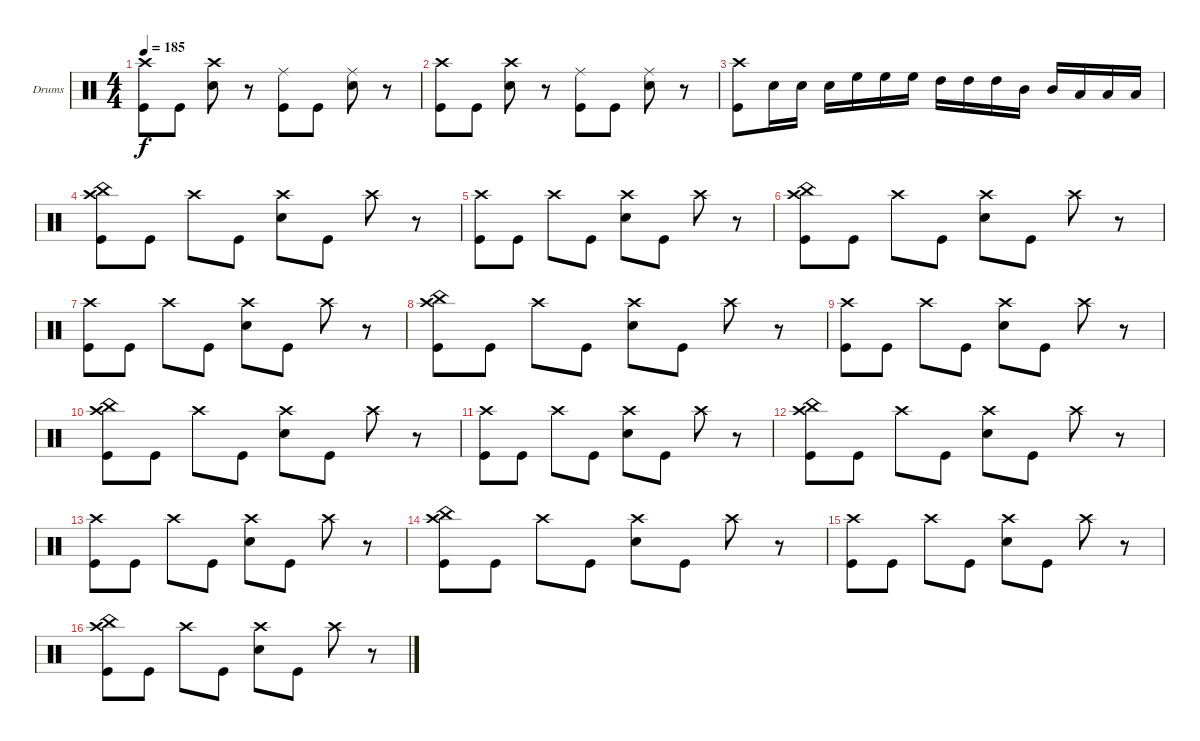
\defaultSystemsLayout 4
\bracketExtendMode nobrackets
\firstSystemTrackNameOrientation horizontal
\otherSystemsTrackNameOrientation horizontal
\track ("Drumkit" "Drums") {instrument percussion}
\staff {score}
\articulation defaults
\ts (4 4)
\tempo 185
\clef neutral
\ks c
("Crash high (hit)" "Kick (hit)").8{dy f} "Kick (hit)".8 ("Crash high (hit)" "Snare (hit) 2").8 r.8 ("Ride (middle)" "Kick (hit)").8 "Kick (hit)".8 ("Ride (middle)" "Snare (hit) 2").8 r.8 |
("Crash high (hit)" "Kick (hit)").8 "Kick (hit)".8 ("Crash high (hit)" "Snare (hit) 2").8 r.8 ("Ride (middle)" "Kick (hit)").8 "Kick (hit)".8 ("Ride (middle)" "Snare (hit) 2").8 r.8 |
("Crash high (hit)" "Kick (hit)").8 "Snare (hit) 2".16 "Snare (hit) 2".16 "Snare (hit) 2".16 "High Floor Tom (hit)".16 "High Floor Tom (hit)".16 "High Floor Tom (hit)".16 "High Tom (hit)".16 "High Tom (hit)".16 "High Tom (hit)".16 "Mid Tom (hit)".16 "Mid Tom (hit)".16 "Low Tom (hit)".16 "Low Tom (hit)".16 "Low Tom (hit)".16 |
("Crash high (hit)" "China (hit)" "Kick (hit)").8 "Kick (hit)".8 "Crash high (hit)".8 "Kick (hit)".8 ("Crash high (hit)" "Snare (hit) 2").8 "Kick (hit)".8 "Crash high (hit)".8 r.8 |
("Crash high (hit)" "Kick (hit)").8 "Kick (hit)".8 "Crash high (hit)".8 "Kick (hit)".8 ("Crash high (hit)" "Snare (hit) 2").8 "Kick (hit)".8 "Crash high (hit)".8 r.8 |
("Crash high (hit)" "China (hit)" "Kick (hit)").8 "Kick (hit)".8 "Crash high (hit)".8 "Kick (hit)".8 ("Crash high (hit)" "Snare (hit) 2").8 "Kick (hit)".8 "Crash high (hit)".8 r.8 |
("Crash high (hit)" "Kick (hit)").8 "Kick (hit)".8 "Crash high (hit)".8 "Kick (hit)".8 ("Crash high (hit)" "Snare (hit) 2").8 "Kick (hit)".8 "Crash high (hit)".8 r.8 |
("Crash high (hit)" "China (hit)" "Kick (hit)").8 "Kick (hit)".8 "Crash high (hit)".8 "Kick (hit)".8 ("Crash high (hit)" "Snare (hit) 2").8 "Kick (hit)".8 "Crash high (hit)".8 r.8 |
("Crash high (hit)" "Kick (hit)").8 "Kick (hit)".8 "Crash high (hit)".8 "Kick (hit)".8 ("Crash high (hit)" "Snare (hit) 2").8 "Kick (hit)".8 "Crash high (hit)".8 r.8 |
("Crash high (hit)" "China (hit)" "Kick (hit)").8 "Kick (hit)".8 "Crash high (hit)".8 "Kick (hit)".8 ("Crash high (hit)" "Snare (hit) 2").8 "Kick (hit)".8 "Crash high (hit)".8 r.8 |
("Crash high (hit)" "Kick (hit)").8 "Kick (hit)".8 "Crash high (hit)".8 "Kick (hit)".8 ("Crash high (hit)" "Snare (hit) 2").8 "Kick (hit)".8 "Crash high (hit)".8 r.8 |
("Crash high (hit)" "China (hit)" "Kick (hit)").8 "Kick (hit)".8 "Crash high (hit)".8 "Kick (hit)".8 ("Crash high (hit)" "Snare (hit) 2").8 "Kick (hit)".8 "Crash high (hit)".8 r.8 |
("Crash high (hit)" "Kick (hit)").8 "Kick (hit)".8 "Crash high (hit)".8 "Kick (hit)".8 ("Crash high (hit)" "Snare (hit) 2").8 "Kick (hit)".8 "Crash high (hit)".8 r.8 |
("Crash high (hit)" "China (hit)" "Kick (hit)").8 "Kick (hit)".8 "Crash high (hit)".8 "Kick (hit)".8 ("Crash high (hit)" "Snare (hit) 2").8 "Kick (hit)".8 "Crash high (hit)".8 r.8 |
("Crash high (hit)" "Kick (hit)").8 "Kick (hit)".8 "Crash high (hit)".8 "Kick (hit)".8 ("Crash high (hit)" "Snare (hit) 2").8 "Kick (hit)".8 "Crash high (hit)".8 r.8 |
("Crash high (hit)" "China (hit)" "Kick (hit)").8 "Kick (hit)".8 "Crash high (hit)".8 "Kick (hit)".8 ("Crash high (hit)" "Snare (hit) 2").8 "Kick (hit)".8 "Crash high (hit)".8 r.8
